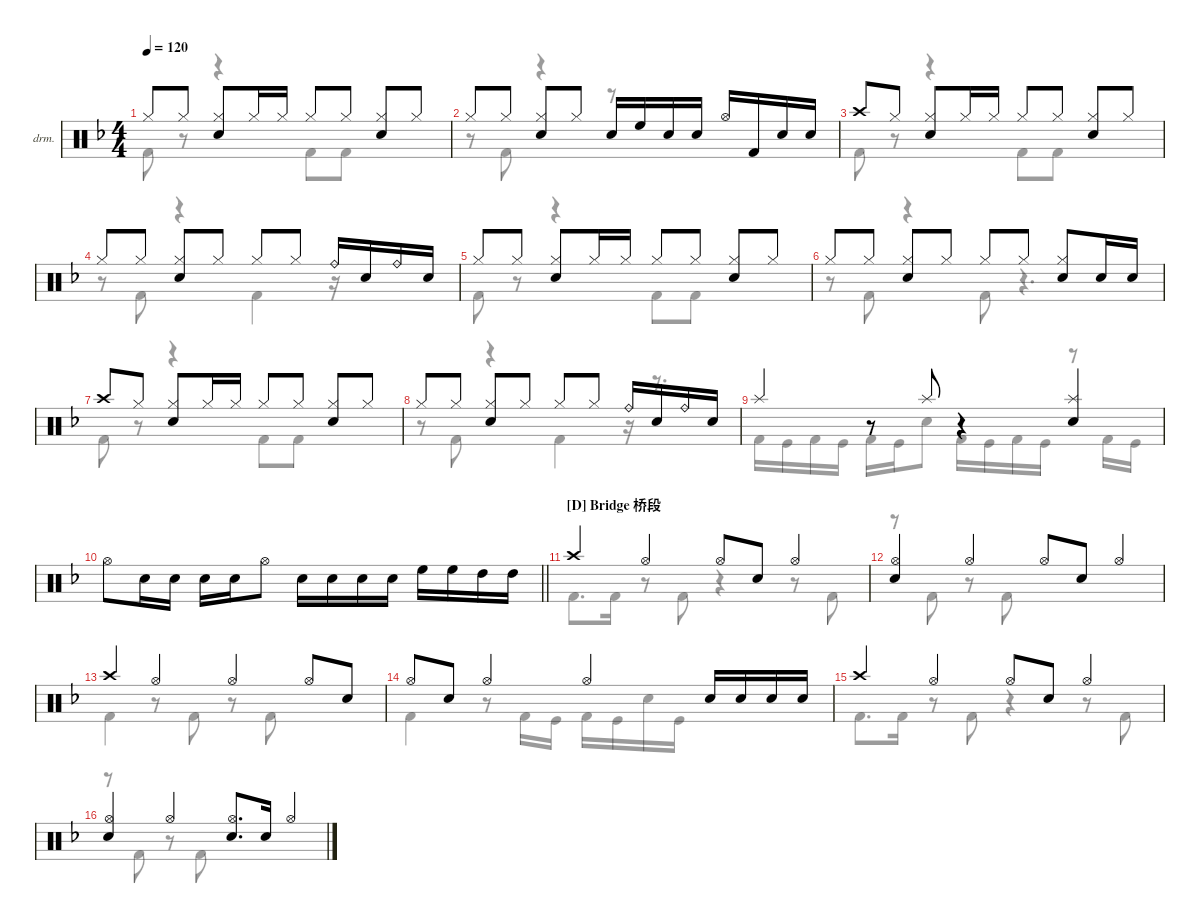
\defaultSystemsLayout 4
\hideDynamics
\bracketExtendMode nobrackets
\firstSystemTrackNameOrientation horizontal
\track ("Drumkit" "drm.") {defaultSystemsLayout 4 instrument percussion}
\staff {score}
\articulation defaults
\voice
\ts (4 4)
\tempo 120
\clef neutral
\ks dminor "Hi-Hat (closed)"{acc forcenatural}.8{dy mf beam Up} "Hi-Hat (closed)"{acc forcenatural}.8{beam Up}
("Hi-Hat (closed)"{acc forcenatural} "Snare (hit) 2"{acc forcenatural}).8{beam Up} "Hi-Hat (closed)"{acc forcenatural}.16{beam Up} "Hi-Hat (closed)"{acc forcenatural}.16{beam Up} "Hi-Hat (closed)"{acc forcenatural}.8{beam Up} "Hi-Hat (closed)"{acc forcenatural}.8{beam Up} ("Hi-Hat (closed)"{acc forcenatural} "Snare (hit) 2"{acc forcenatural}).8{beam Up} "Hi-Hat (closed)"{acc forcenatural}.8{beam Up} |
"Hi-Hat (closed)"{acc forcenatural}.8{beam Up} "Hi-Hat (closed)"{acc forcenatural}.8{beam Up} ("Hi-Hat (closed)"{acc forcenatural} "Snare (hit) 2"{acc forcenatural}).8{beam Up} "Hi-Hat (closed)"{acc forcenatural}.8{beam Up} "Snare (hit) 2"{acc forcenatural}.16{beam Up} "High Floor Tom (hit)"{acc forcenatural}.16{beam Up} "Snare (hit) 2"{acc forcenatural}.16{beam Up} "Snare (hit) 2"{acc forcenatural}.16{beam Up} "Hi-Hat (open)"{acc forcenatural}.16{beam Up} "Kick (hit) 2"{acc forcenatural}.16{beam Up} "Snare (hit) 2"{acc forcenatural}.16{beam Up} "Snare (hit) 2"{acc forcenatural}.16{beam Up} |
"Crash high (hit)"{acc forcenatural}.8{beam Up} "Hi-Hat (closed)"{acc forcenatural}.8{beam Up} ("Hi-Hat (closed)"{acc forcenatural} "Snare (hit) 2"{acc forcenatural}).8{beam Up} "Hi-Hat (closed)"{acc forcenatural}.16{beam Up} "Hi-Hat (closed)"{acc forcenatural}.16{beam Up} "Hi-Hat (closed)"{acc forcenatural}.8{beam Up} "Hi-Hat (closed)"{acc forcenatural}.8{beam Up} ("Hi-Hat (closed)"{acc forcenatural} "Snare (hit) 2"{acc forcenatural}).8{beam Up} "Hi-Hat (closed)"{acc forcenatural}.8{beam Up} |
"Hi-Hat (closed)"{acc forcenatural}.8{beam Up} "Hi-Hat (closed)"{acc forcenatural}.8{beam Up} ("Hi-Hat (closed)"{acc forcenatural} "Snare (hit) 2"{acc forcenatural}).8{beam Up} "Hi-Hat (closed)"{acc forcenatural}.8{beam Up} "Hi-Hat (closed)"{acc forcenatural}.8{beam Up} "Hi-Hat (closed)"{acc forcenatural}.8{beam Up} "Ride (bell)"{acc forcenatural}.16{beam Up} "Snare (hit) 2"{acc forcenatural}.16{beam Up} "Ride (bell)"{acc forcenatural}.16{beam Up} "Snare (hit) 2"{acc forcenatural}.16{beam Up} |
"Hi-Hat (closed)"{acc forcenatural}.8{beam Up} "Hi-Hat (closed)"{acc forcenatural}.8{beam Up} ("Hi-Hat (closed)"{acc forcenatural} "Snare (hit) 2"{acc forcenatural}).8{beam Up} "Hi-Hat (closed)"{acc forcenatural}.16{beam Up} "Hi-Hat (closed)"{acc forcenatural}.16{beam Up} "Hi-Hat (closed)"{acc forcenatural}.8{beam Up} "Hi-Hat (closed)"{acc forcenatural}.8{beam Up} ("Hi-Hat (closed)"{acc forcenatural} "Snare (hit) 2"{acc forcenatural}).8{beam Up} "Hi-Hat (closed)"{acc forcenatural}.8{beam Up} |
"Hi-Hat (closed)"{acc forcenatural}.8{beam Up} "Hi-Hat (closed)"{acc forcenatural}.8{beam Up} ("Hi-Hat (closed)"{acc forcenatural} "Snare (hit) 2"{acc forcenatural}).8{beam Up} "Hi-Hat (closed)"{acc forcenatural}.8{beam Up} "Hi-Hat (closed)"{acc forcenatural}.8{beam Up} "Hi-Hat (closed)"{acc forcenatural}.8{beam Up} ("Hi-Hat (closed)"{acc forcenatural} "Snare (hit) 2"{acc forcenatural}).8{beam Up} "Snare (hit) 2"{acc forcenatural}.16{beam Up} "Snare (hit) 2"{acc forcenatural}.16{beam Up} |
"Crash high (hit)"{acc forcenatural}.8{beam Up} "Hi-Hat (closed)"{acc forcenatural}.8{beam Up} ("Hi-Hat (closed)"{acc forcenatural} "Snare (hit) 2"{acc forcenatural}).8{beam Up} "Hi-Hat (closed)"{acc forcenatural}.16{beam Up} "Hi-Hat (closed)"{acc forcenatural}.16{beam Up} "Hi-Hat (closed)"{acc forcenatural}.8{beam Up} "Hi-Hat (closed)"{acc forcenatural}.8{beam Up} ("Hi-Hat (closed)"{acc forcenatural} "Snare (hit) 2"{acc forcenatural}).8{beam Up} "Hi-Hat (closed)"{acc forcenatural}.8{beam Up} |
"Hi-Hat (closed)"{acc forcenatural}.8{beam Up} "Hi-Hat (closed)"{acc forcenatural}.8{beam Up} ("Hi-Hat (closed)"{acc forcenatural} "Snare (hit) 2"{acc forcenatural}).8{beam Up} "Hi-Hat (closed)"{acc forcenatural}.8{beam Up} "Hi-Hat (closed)"{acc forcenatural}.8{beam Up} "Hi-Hat (closed)"{acc forcenatural}.8{beam Up} "Ride (bell)"{acc forcenatural}.16{beam Up} "Snare (hit) 2"{acc forcenatural}.16{beam Up} "Ride (bell)"{acc forcenatural}.16{beam Up} "Snare (hit) 2"{acc forcenatural}.16{beam Up} |
"Splash (hit)"{acc forcenatural}.4{beam Up} r.8{beam Up} "Splash (hit)"{acc forcenatural}.8{beam Up} r.4{beam Up} ("Splash (hit)"{acc forcenatural} "Snare (hit) 2"{acc forcenatural}).4{beam Up} |
\barLineRight lightlight "Hi-Hat (open)"{acc forcenatural}.8{beam Down} "Snare (hit) 2"{acc forcenatural}.16{beam Down} "Snare (hit) 2"{acc forcenatural}.16{beam Down} "Snare (hit) 2"{acc forcenatural}.16{beam Down} "Snare (hit) 2"{acc forcenatural}.16{beam Down} "Hi-Hat (open)"{acc forcenatural}.8{beam Down} "Snare (hit) 2"{acc forcenatural}.16{beam Down} "Snare (hit) 2"{acc forcenatural}.16{beam Down} "Snare (hit) 2"{acc forcenatural}.16{beam Down} "Snare (hit) 2"{acc forcenatural}.16{beam Down} "High Floor Tom (hit)"{acc forcenatural}.16{beam Down} "High Floor Tom (hit)"{acc forcenatural}.16{beam Down} "High Tom (hit)"{acc forcenatural}.16{beam Down} "High Tom (hit)"{acc forcenatural}.16{beam Down}
|
\section ("D" "Bridge 桥段")
"Crash high (hit)"{acc forcenatural}.4{beam Up} "Hi-Hat (open)"{acc forcenatural}.4{beam Up} "Hi-Hat (open)"{acc forcenatural}.8{beam Up} "Snare (hit) 2"{acc forcenatural}.8{beam Up} "Hi-Hat (open)"{acc forcenatural}.4{beam Up} |
("Snare (hit) 2"{acc forcenatural} "Hi-Hat (open)"{acc forcenatural}).4{beam Up} "Hi-Hat (open)"{acc forcenatural}.4{beam Up} "Hi-Hat (open)"{acc forcenatural}.8{beam Up} "Snare (hit) 2"{acc forcenatural}.8{beam Up} "Hi-Hat (open)"{acc forcenatural}.4{beam Up} |
"Crash high (hit)"{acc forcenatural}.4{beam Up} "Hi-Hat (open)"{acc forcenatural}.4{beam Up} "Hi-Hat (open)"{acc forcenatural}.4{beam Up} "Hi-Hat (open)"{acc forcenatural}.8{beam Up} "Snare (hit) 2"{acc forcenatural}.8{beam Up} |
"Hi-Hat (open)"{acc forcenatural}.8{beam Up} "Snare (hit) 2"{acc forcenatural}.8{beam Up} "Hi-Hat (open)"{acc forcenatural}.4{beam Up} "Hi-Hat (open)"{acc forcenatural}.4{beam Up} "Snare (hit) 2"{acc forcenatural}.16{beam Up} "Snare (hit) 2"{acc forcenatural}.16{beam Up} "Snare (hit) 2"{acc forcenatural}.16{beam Up} "Snare (hit) 2"{acc forcenatural}.16{beam Up} |
"Crash high (hit)"{acc forcenatural}.4{beam Up} "Hi-Hat (open)"{acc forcenatural}.4{beam Up} "Hi-Hat (open)"{acc forcenatural}.8{beam Up} "Snare (hit) 2"{acc forcenatural}.8{beam Up} "Hi-Hat (open)"{acc forcenatural}.4{beam Up} |
("Snare (hit) 2"{acc forcenatural} "Hi-Hat (open)"{acc forcenatural}).4{beam Up} "Hi-Hat (open)"{acc forcenatural}.4{beam Up} ("Hi-Hat (open)"{acc forcenatural} "Snare (hit) 2"{acc forcenatural}).8{d beam Up} "Snare (hit) 2"{acc forcenatural}.16{beam Up} "Hi-Hat (open)"{acc forcenatural}.4{beam Up}
\voice
\clef neutral
\ottava regular
\simile none
\ks dminor "Kick (hit) 2"{acc forcenatural}.8{dy mf beam Down}
r.8{beam Down} r.4{beam Down} "Kick (hit) 2"{acc forcenatural}.8{beam Down} "Kick (hit) 2"{acc forcenatural}.8{beam Down} |
r.8{beam Down} "Kick (hit) 2"{acc forcenatural}.8{beam Down} r.4{beam Down} r.8{beam Down} |
"Kick (hit) 2"{acc forcenatural}.8{beam Down} r.8{beam Down} r.4{beam Down} "Kick (hit) 2"{acc forcenatural}.8{beam Down} "Kick (hit) 2"{acc forcenatural}.8{beam Down} |
r.8{beam Down} "Kick (hit) 2"{acc forcenatural}.8{beam Down} r.4{beam Down} "Kick (hit) 2"{acc forcenatural}.4{beam Down} r.16{beam Down} |
"Kick (hit) 2"{acc forcenatural}.8{beam Down} r.8{beam Down} r.4{beam Down} "Kick (hit) 2"{acc forcenatural}.8{beam Down} "Kick (hit) 2"{acc forcenatural}.8{beam Down} |
r.8{beam Down} "Kick (hit) 2"{acc forcenatural}.8{beam Down} r.4{beam Down} "Kick (hit) 2"{acc forcenatural}.8{beam Down} r.4{d beam Down} |
"Kick (hit) 2"{acc forcenatural}.8{beam Down} r.8{beam Down} r.4{beam Down} "Kick (hit) 2"{acc forcenatural}.8{beam Down} "Kick (hit) 2"{acc forcenatural}.8{beam Down} |
r.8{beam Down} "Kick (hit) 2"{acc forcenatural}.8{beam Down} r.4{beam Down} "Kick (hit) 2"{acc forcenatural}.4{beam Down} r.16{beam Down} r.8{d beam Down} |
"Kick (hit) 2"{acc forcenatural}.16{beam Down} "Kick (hit)"{acc forcenatural}.16{beam Down} "Kick (hit) 2"{acc forcenatural}.16{beam Down} "Kick (hit)"{acc forcenatural}.16{beam Down} "Kick (hit) 2"{acc forcenatural}.16{beam Down} "Kick (hit)"{acc forcenatural}.16{beam Down} "Snare (hit) 2"{acc forcenatural}.8{beam Down} "Kick (hit) 2"{acc forcenatural}.16{beam Down} "Kick (hit)"{acc forcenatural}.16{beam Down} "Kick (hit) 2"{acc forcenatural}.16{beam Down} "Kick (hit)"{acc forcenatural}.16{beam Down} r.8{beam Down} "Kick (hit) 2"{acc forcenatural}.16{beam Down} "Kick (hit)"{acc forcenatural}.16{beam Down} |
\barLineRight lightlight
|
"Kick (hit) 2"{acc forcenatural}.8{d beam Down} "Kick (hit) 2"{acc forcenatural}.16{beam Down} r.8{beam Down} "Kick (hit) 2"{acc forcenatural}.8{beam Down} r.4{beam Down} r.8{beam Down} "Kick (hit) 2"{acc forcenatural}.8{beam Down} |
r.8{beam Down} "Kick (hit) 2"{acc forcenatural}.8{beam Down} r.8{beam Down} "Kick (hit) 2"{acc forcenatural}.8{beam Down} |
"Kick (hit) 2"{acc forcenatural}.4{beam Down} r.8{beam Down} "Kick (hit) 2"{acc forcenatural}.8{beam Down} r.8{beam Down} "Kick (hit) 2"{acc forcenatural}.8{beam Down} |
"Kick (hit) 2"{acc forcenatural}.4{beam Down} r.8{beam Down} "Kick (hit) 2"{acc forcenatural}.16{beam Down} "Kick (hit)"{acc forcenatural}.16{beam Down} "Kick (hit) 2"{acc forcenatural}.16{beam Down} "Kick (hit)"{acc forcenatural}.16{beam Down} "Snare (hit) 2"{acc forcenatural}.16{beam Down} "Kick (hit)"{acc forcenatural}.16{beam Down} |
"Kick (hit) 2"{acc forcenatural}.8{d beam Down} "Kick (hit) 2"{acc forcenatural}.16{beam Down} r.8{beam Down} "Kick (hit) 2"{acc forcenatural}.8{beam Down} r.4{beam Down} r.8{beam Down} "Kick (hit) 2"{acc forcenatural}.8{beam Down} |
r.8{beam Down} "Kick (hit) 2"{acc forcenatural}.8{beam Down} r.8{beam Down} "Kick (hit) 2"{acc forcenatural}.8{beam Down}
